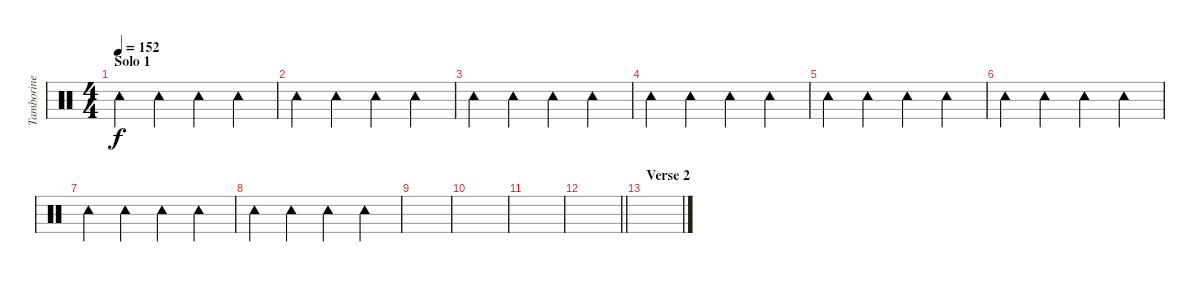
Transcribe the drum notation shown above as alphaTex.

\track ("Tamborine" "Tamborine") {instrument percussion}
\staff {score}
\articulation defaults
\ts (4 4)
\section ("" "Solo 1")
\tempo 152
\clef neutral
\ks c "Tambourine (hit)".4{dy f} "Tambourine (hit)".4 "Tambourine (hit)".4 "Tambourine (hit)".4
|
"Tambourine (hit)".4 "Tambourine (hit)".4 "Tambourine (hit)".4 "Tambourine (hit)".4 |
"Tambourine (hit)".4 "Tambourine (hit)".4 "Tambourine (hit)".4 "Tambourine (hit)".4 |
"Tambourine (hit)".4 "Tambourine (hit)".4 "Tambourine (hit)".4 "Tambourine (hit)".4 |
"Tambourine (hit)".4 "Tambourine (hit)".4 "Tambourine (hit)".4 "Tambourine (hit)".4 |
"Tambourine (hit)".4 "Tambourine (hit)".4 "Tambourine (hit)".4 "Tambourine (hit)".4 |
"Tambourine (hit)".4 "Tambourine (hit)".4 "Tambourine (hit)".4 "Tambourine (hit)".4 |
"Tambourine (hit)".4 "Tambourine (hit)".4 "Tambourine (hit)".4 "Tambourine (hit)".4 |
|
|
|
\barLineRight lightlight
|
\section ("" "Verse 2")
